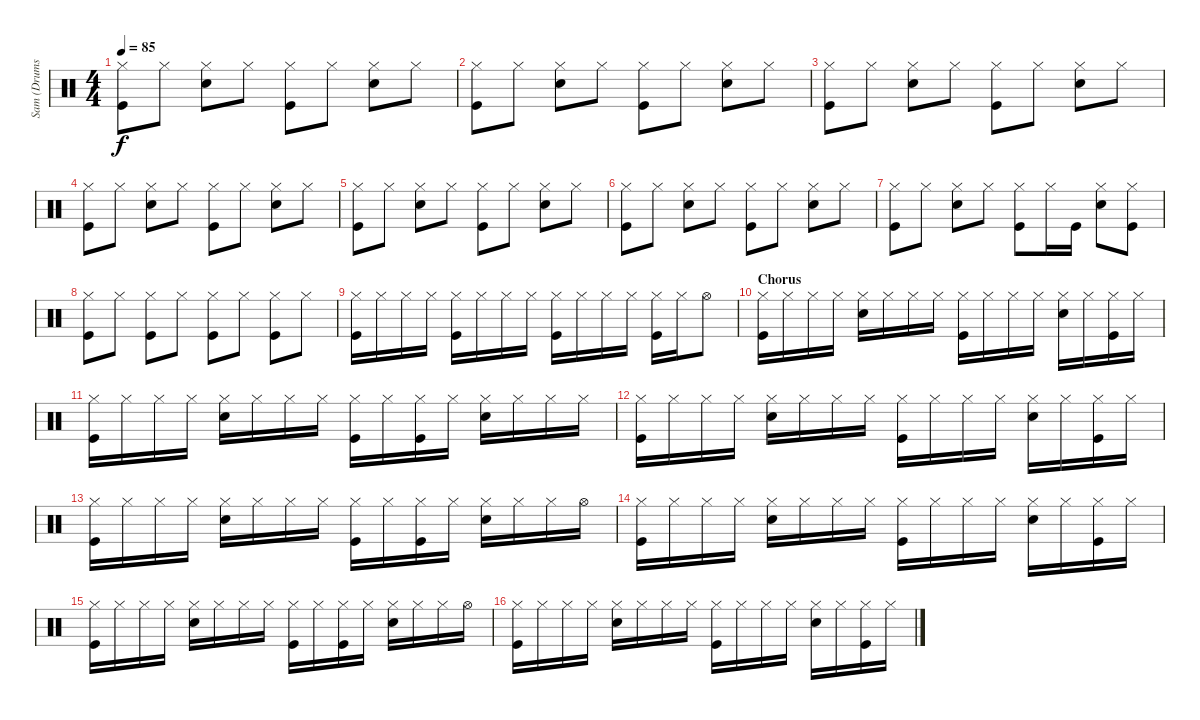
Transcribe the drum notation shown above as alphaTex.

\track ("Sam (Drums)" "Sam (Drums") {instrument percussion}
\staff {score}
\articulation defaults
\ts (4 4)
\tempo 85
\clef neutral
\ks c
("Hi-Hat (closed)" "Kick (hit)").8{dy f} "Hi-Hat (closed)".8 ("Hi-Hat (closed)" "Snare (hit) 2").8 "Hi-Hat (closed)".8 ("Hi-Hat (closed)" "Kick (hit)").8 "Hi-Hat (closed)".8 ("Hi-Hat (closed)" "Snare (hit) 2").8 "Hi-Hat (closed)".8 |
("Hi-Hat (closed)" "Kick (hit)").8 "Hi-Hat (closed)".8 ("Hi-Hat (closed)" "Snare (hit) 2").8 "Hi-Hat (closed)".8 ("Hi-Hat (closed)" "Kick (hit)").8 "Hi-Hat (closed)".8 ("Hi-Hat (closed)" "Snare (hit) 2").8 "Hi-Hat (closed)".8 |
("Hi-Hat (closed)" "Kick (hit)").8 "Hi-Hat (closed)".8 ("Hi-Hat (closed)" "Snare (hit) 2").8 "Hi-Hat (closed)".8 ("Hi-Hat (closed)" "Kick (hit)").8 "Hi-Hat (closed)".8 ("Hi-Hat (closed)" "Snare (hit) 2").8 "Hi-Hat (closed)".8 |
("Hi-Hat (closed)" "Kick (hit)").8 "Hi-Hat (closed)".8 ("Hi-Hat (closed)" "Snare (hit) 2").8 "Hi-Hat (closed)".8 ("Hi-Hat (closed)" "Kick (hit)").8 "Hi-Hat (closed)".8 ("Hi-Hat (closed)" "Snare (hit) 2").8 "Hi-Hat (closed)".8 |
("Hi-Hat (closed)" "Kick (hit)").8 "Hi-Hat (closed)".8 ("Hi-Hat (closed)" "Snare (hit) 2").8 "Hi-Hat (closed)".8 ("Hi-Hat (closed)" "Kick (hit)").8 "Hi-Hat (closed)".8 ("Hi-Hat (closed)" "Snare (hit) 2").8 "Hi-Hat (closed)".8 |
("Hi-Hat (closed)" "Kick (hit)").8 "Hi-Hat (closed)".8 ("Hi-Hat (closed)" "Snare (hit) 2").8 "Hi-Hat (closed)".8 ("Hi-Hat (closed)" "Kick (hit)").8 "Hi-Hat (closed)".8 ("Hi-Hat (closed)" "Snare (hit) 2").8 "Hi-Hat (closed)".8 |
("Hi-Hat (closed)" "Kick (hit)").8 "Hi-Hat (closed)".8 ("Hi-Hat (closed)" "Snare (hit) 2").8 "Hi-Hat (closed)".8 ("Hi-Hat (closed)" "Kick (hit)").8 "Hi-Hat (closed)".16 "Kick (hit)".16 ("Hi-Hat (closed)" "Snare (hit) 2").8 ("Hi-Hat (closed)" "Kick (hit)").8 |
("Hi-Hat (closed)" "Kick (hit)").8 "Hi-Hat (closed)".8 ("Hi-Hat (closed)" "Kick (hit)").8 "Hi-Hat (closed)".8 ("Hi-Hat (closed)" "Kick (hit)").8 "Hi-Hat (closed)".8 ("Hi-Hat (closed)" "Kick (hit)").8 "Hi-Hat (closed)".8 |
("Hi-Hat (closed)" "Kick (hit)").16 "Hi-Hat (closed)".16 "Hi-Hat (closed)".16 "Hi-Hat (closed)".16 ("Hi-Hat (closed)" "Kick (hit)").16 "Hi-Hat (closed)".16 "Hi-Hat (closed)".16 "Hi-Hat (closed)".16 ("Hi-Hat (closed)" "Kick (hit)").16 "Hi-Hat (closed)".16 "Hi-Hat (closed)".16 "Hi-Hat (closed)".16 ("Hi-Hat (closed)" "Kick (hit)").16 "Hi-Hat (closed)".16 "Hi-Hat (open)".8 |
\section ("" "Chorus")
("Hi-Hat (closed)" "Kick (hit)").16 "Hi-Hat (closed)".16 "Hi-Hat (closed)".16 "Hi-Hat (closed)".16 ("Hi-Hat (closed)" "Snare (hit) 2").16 "Hi-Hat (closed)".16 "Hi-Hat (closed)".16 "Hi-Hat (closed)".16 ("Hi-Hat (closed)" "Kick (hit)").16 "Hi-Hat (closed)".16 "Hi-Hat (closed)".16 "Hi-Hat (closed)".16 ("Hi-Hat (closed)" "Snare (hit) 2").16 "Hi-Hat (closed)".16 ("Hi-Hat (closed)" "Kick (hit)").16 "Hi-Hat (closed)".16 |
("Hi-Hat (closed)" "Kick (hit)").16 "Hi-Hat (closed)".16 "Hi-Hat (closed)".16 "Hi-Hat (closed)".16 ("Hi-Hat (closed)" "Snare (hit) 2").16 "Hi-Hat (closed)".16 "Hi-Hat (closed)".16 "Hi-Hat (closed)".16 ("Hi-Hat (closed)" "Kick (hit)").16 "Hi-Hat (closed)".16 ("Hi-Hat (closed)" "Kick (hit)").16 "Hi-Hat (closed)".16 ("Hi-Hat (closed)" "Snare (hit) 2").16 "Hi-Hat (closed)".16 "Hi-Hat (closed)".16 "Hi-Hat (closed)".16 |
("Hi-Hat (closed)" "Kick (hit)").16 "Hi-Hat (closed)".16 "Hi-Hat (closed)".16 "Hi-Hat (closed)".16 ("Hi-Hat (closed)" "Snare (hit) 2").16 "Hi-Hat (closed)".16 "Hi-Hat (closed)".16 "Hi-Hat (closed)".16 ("Hi-Hat (closed)" "Kick (hit)").16 "Hi-Hat (closed)".16 "Hi-Hat (closed)".16 "Hi-Hat (closed)".16 ("Hi-Hat (closed)" "Snare (hit) 2").16 "Hi-Hat (closed)".16 ("Hi-Hat (closed)" "Kick (hit)").16 "Hi-Hat (closed)".16 |
("Hi-Hat (closed)" "Kick (hit)").16 "Hi-Hat (closed)".16 "Hi-Hat (closed)".16 "Hi-Hat (closed)".16 ("Hi-Hat (closed)" "Snare (hit) 2").16 "Hi-Hat (closed)".16 "Hi-Hat (closed)".16 "Hi-Hat (closed)".16 ("Hi-Hat (closed)" "Kick (hit)").16 "Hi-Hat (closed)".16 ("Hi-Hat (closed)" "Kick (hit)").16 "Hi-Hat (closed)".16 ("Hi-Hat (closed)" "Snare (hit) 2").16 "Hi-Hat (closed)".16 "Hi-Hat (closed)".16 "Hi-Hat (open)".16 |
("Hi-Hat (closed)" "Kick (hit)").16 "Hi-Hat (closed)".16 "Hi-Hat (closed)".16 "Hi-Hat (closed)".16 ("Hi-Hat (closed)" "Snare (hit) 2").16 "Hi-Hat (closed)".16 "Hi-Hat (closed)".16 "Hi-Hat (closed)".16 ("Hi-Hat (closed)" "Kick (hit)").16 "Hi-Hat (closed)".16 "Hi-Hat (closed)".16 "Hi-Hat (closed)".16 ("Hi-Hat (closed)" "Snare (hit) 2").16 "Hi-Hat (closed)".16 ("Hi-Hat (closed)" "Kick (hit)").16 "Hi-Hat (closed)".16 |
("Hi-Hat (closed)" "Kick (hit)").16 "Hi-Hat (closed)".16 "Hi-Hat (closed)".16 "Hi-Hat (closed)".16 ("Hi-Hat (closed)" "Snare (hit) 2").16 "Hi-Hat (closed)".16 "Hi-Hat (closed)".16 "Hi-Hat (closed)".16 ("Hi-Hat (closed)" "Kick (hit)").16 "Hi-Hat (closed)".16 ("Hi-Hat (closed)" "Kick (hit)").16 "Hi-Hat (closed)".16 ("Hi-Hat (closed)" "Snare (hit) 2").16 "Hi-Hat (closed)".16 "Hi-Hat (closed)".16 "Hi-Hat (open)".16 |
("Hi-Hat (closed)" "Kick (hit)").16 "Hi-Hat (closed)".16 "Hi-Hat (closed)".16 "Hi-Hat (closed)".16 ("Hi-Hat (closed)" "Snare (hit) 2").16 "Hi-Hat (closed)".16 "Hi-Hat (closed)".16 "Hi-Hat (closed)".16 ("Hi-Hat (closed)" "Kick (hit)").16 "Hi-Hat (closed)".16 "Hi-Hat (closed)".16 "Hi-Hat (closed)".16 ("Hi-Hat (closed)" "Snare (hit) 2").16 "Hi-Hat (closed)".16 ("Hi-Hat (closed)" "Kick (hit)").16 "Hi-Hat (closed)".16
